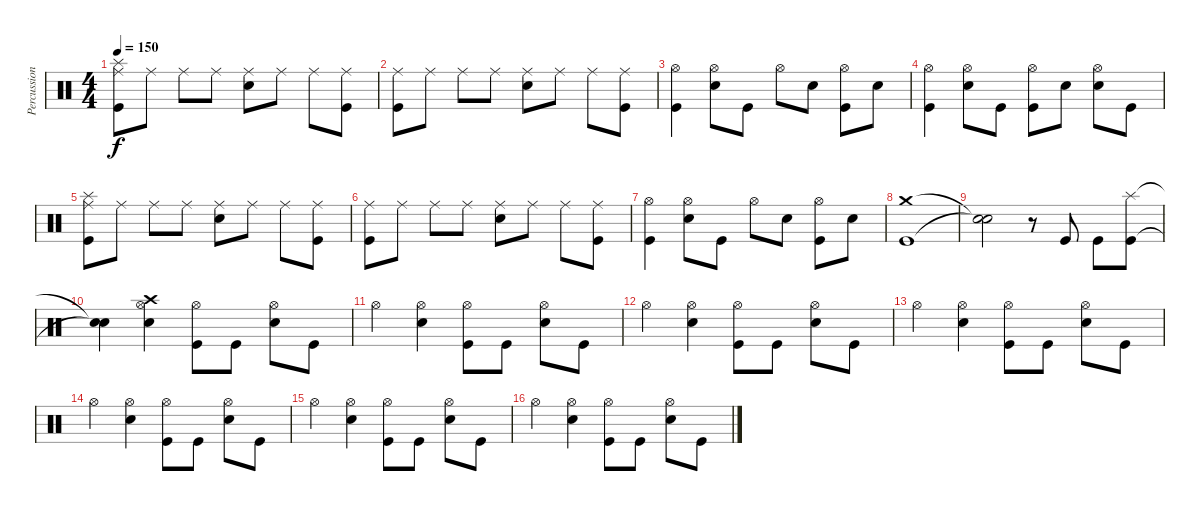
\track ("Percussions" "Percussion") {instrument percussion}
\staff {score}
\articulation defaults
\ts (4 4)
\tempo 150
\clef neutral
\ks c
("Splash (hit)" "Ride (middle)" "Kick (hit)").8{dy f} "Ride (middle)".8 "Ride (middle)".8 "Ride (middle)".8 ("Ride (middle)" "Electric Snare (hit)").8 "Ride (middle)".8 "Ride (middle)".8 ("Ride (middle)" "Kick (hit)").8 |
("Ride (middle)" "Kick (hit)").8 "Ride (middle)".8 "Ride (middle)".8 "Ride (middle)".8 ("Ride (middle)" "Electric Snare (hit)").8 "Ride (middle)".8 "Ride (middle)".8 ("Ride (middle)" "Kick (hit)").8 |
("Hi-Hat (open)" "Kick (hit)").4 ("Hi-Hat (open)" "Electric Snare (hit)").8 "Kick (hit)".8 "Hi-Hat (open)".8 "Electric Snare (hit)".8 ("Hi-Hat (open)" "Kick (hit)").8 "Electric Snare (hit)".8 |
("Hi-Hat (open)" "Kick (hit)").4 ("Hi-Hat (open)" "Electric Snare (hit)").8 "Kick (hit)".8 ("Hi-Hat (open)" "Kick (hit)").8 "Electric Snare (hit)".8 ("Hi-Hat (open)" "Electric Snare (hit)").8 "Kick (hit)".8 |
("Splash (hit)" "Ride (middle)" "Kick (hit)").8 "Ride (middle)".8 "Ride (middle)".8 "Ride (middle)".8 ("Ride (middle)" "Electric Snare (hit)").8 "Ride (middle)".8 "Ride (middle)".8 ("Ride (middle)" "Kick (hit)").8 |
("Ride (middle)" "Kick (hit)").8 "Ride (middle)".8 "Ride (middle)".8 "Ride (middle)".8 ("Ride (middle)" "Electric Snare (hit)").8 "Ride (middle)".8 "Ride (middle)".8 ("Ride (middle)" "Kick (hit)").8 |
("Hi-Hat (open)" "Kick (hit)").4 ("Hi-Hat (open)" "Electric Snare (hit)").8 "Kick (hit)".8 "Hi-Hat (open)".8 "Electric Snare (hit)".8 ("Hi-Hat (open)" "Kick (hit)").8 "Electric Snare (hit)".8 |
("Crash medium (hit)" "Kick (hit)").1 |
("Snare (hit)"{t} "Snare (hit)"{t}).2 r.8 "Kick (hit)".8 "Kick (hit)".8 ("Splash (hit)" "Kick (hit)").8 |
("Snare (hit)"{t} "Snare (hit)"{t}).4 ("Crash high (hit)" "Hi-Hat (open)" "Electric Snare (hit)").4 ("Hi-Hat (open)" "Kick (hit)").8 "Kick (hit)".8 ("Hi-Hat (open)" "Electric Snare (hit)").8 "Kick (hit)".8 |
"Hi-Hat (open)".4 ("Hi-Hat (open)" "Electric Snare (hit)").4 ("Hi-Hat (open)" "Kick (hit)").8 "Kick (hit)".8 ("Hi-Hat (open)" "Electric Snare (hit)").8 "Kick (hit)".8 |
"Hi-Hat (open)".4 ("Hi-Hat (open)" "Electric Snare (hit)").4 ("Hi-Hat (open)" "Kick (hit)").8 "Kick (hit)".8 ("Hi-Hat (open)" "Electric Snare (hit)").8 "Kick (hit)".8 |
"Hi-Hat (open)".4 ("Hi-Hat (open)" "Electric Snare (hit)").4 ("Hi-Hat (open)" "Kick (hit)").8 "Kick (hit)".8 ("Hi-Hat (open)" "Electric Snare (hit)").8 "Kick (hit)".8 |
"Hi-Hat (open)".4 ("Hi-Hat (open)" "Electric Snare (hit)").4 ("Hi-Hat (open)" "Kick (hit)").8 "Kick (hit)".8 ("Hi-Hat (open)" "Electric Snare (hit)").8 "Kick (hit)".8 |
"Hi-Hat (open)".4 ("Hi-Hat (open)" "Electric Snare (hit)").4 ("Hi-Hat (open)" "Kick (hit)").8 "Kick (hit)".8 ("Hi-Hat (open)" "Electric Snare (hit)").8 "Kick (hit)".8 |
"Hi-Hat (open)".4 ("Hi-Hat (open)" "Electric Snare (hit)").4 ("Hi-Hat (open)" "Kick (hit)").8 "Kick (hit)".8 ("Hi-Hat (open)" "Electric Snare (hit)").8 "Kick (hit)".8
